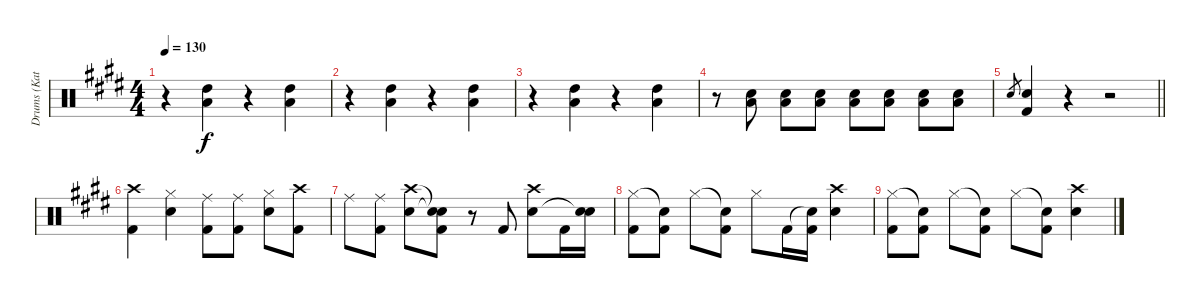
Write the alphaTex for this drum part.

\track ("Drums (Katsuji)" "Drums (Kat") {instrument percussion}
\staff {score}
\articulation defaults
\ts (4 4)
\tempo 130
\clef neutral
\ks e
r.4{dy f} ("High Tom (hit)" "Low Tom (hit)").4 r.4 ("High Tom (hit)" "Low Tom (hit)").4 |
r.4 ("High Tom (hit)" "Low Tom (hit)").4 r.4 ("High Tom (hit)" "Low Tom (hit)").4 |
r.4 ("High Tom (hit)" "Low Tom (hit)").4 r.4 ("High Tom (hit)" "Low Tom (hit)").4 |
r.8 ("Snare (hit) 2" "Low Tom (hit)").8 ("Snare (hit) 2" "Low Tom (hit)").8 ("Snare (hit) 2" "Low Tom (hit)").8 ("Snare (hit) 2" "Low Tom (hit)").8 ("Snare (hit) 2" "Low Tom (hit)").8 ("Snare (hit) 2" "Low Tom (hit)").8 ("Snare (hit) 2" "Low Tom (hit)").8 |
\barLineRight lightlight "Snare (hit) 2".8{gr}
("Snare (hit) 2" "Kick (hit) 2").4 r.4 r.2 |
("Crash high (hit)" "Kick (hit) 2").4 ("Hi-Hat (closed)" "Snare (hit) 2").4 ("Ride (middle)" "Kick (hit) 2").8 ("Ride (middle)" "Kick (hit) 2").8 ("Hi-Hat (closed)" "Snare (hit) 2").8 ("Crash high (hit)" "Kick (hit) 2").8 |
"Ride (middle)".8 ("Ride (middle)" "Kick (hit) 2").8 ("Crash high (hit)" "Snare (hit) 2").8 ("Snare (hit)"{t} "Snare (hit)"{t} "Kick (hit) 2").8 r.8 "Kick (hit) 2".8 ("Crash high (hit)" "Snare (hit) 2").8 "Kick (hit) 2".16 ("Snare (hit) 2" "Snare (hit)"{t}).16 |
("Hi-Hat (closed)" "Kick (hit) 2").8 ("Snare (hit)"{t} "Kick (hit) 2").8 "Hi-Hat (closed)".8 ("Snare (hit)"{t} "Kick (hit) 2").8 "Hi-Hat (closed)".8 "Kick (hit) 2".16 ("Snare (hit)"{t} "Kick (hit) 2").16 ("Crash high (hit)" "Snare (hit) 2").4 |
("Hi-Hat (closed)" "Kick (hit) 2").8 ("Snare (hit)"{t} "Kick (hit) 2").8 "Hi-Hat (closed)".8 ("Snare (hit)"{t} "Kick (hit) 2").8 "Hi-Hat (closed)".8 ("Snare (hit)"{t} "Kick (hit) 2").8 ("Crash high (hit)" "Snare (hit) 2").4
